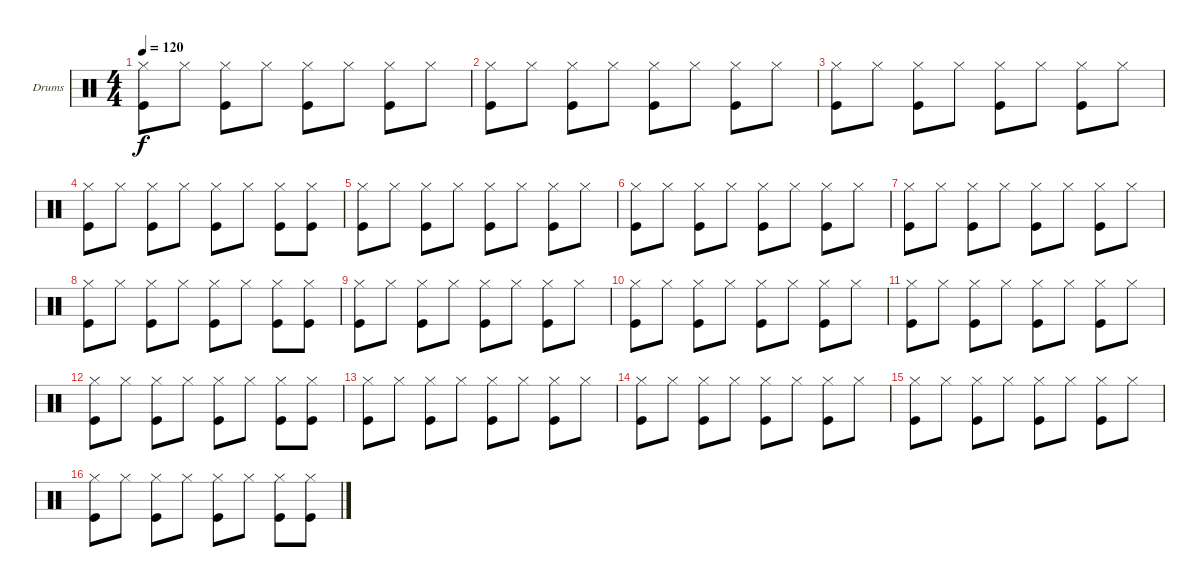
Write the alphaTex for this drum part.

\bracketExtendMode groupsimilarinstruments
\firstSystemTrackNameOrientation horizontal
\otherSystemsTrackNameOrientation horizontal
\track ("Ударные" "Drums") {instrument percussion}
\staff {score}
\articulation defaults
\ts (4 4)
\tempo 120
\clef neutral
\ks c
("Hi-Hat (closed)" "Kick (hit)").8{dy f} "Hi-Hat (closed)".8 ("Hi-Hat (closed)" "Kick (hit)").8 "Hi-Hat (closed)".8 ("Hi-Hat (closed)" "Kick (hit)").8 "Hi-Hat (closed)".8 ("Hi-Hat (closed)" "Kick (hit)").8 "Hi-Hat (closed)".8 |
("Hi-Hat (closed)" "Kick (hit)").8 "Hi-Hat (closed)".8 ("Hi-Hat (closed)" "Kick (hit)").8 "Hi-Hat (closed)".8 ("Hi-Hat (closed)" "Kick (hit)").8 "Hi-Hat (closed)".8 ("Hi-Hat (closed)" "Kick (hit)").8 "Hi-Hat (closed)".8 |
("Hi-Hat (closed)" "Kick (hit)").8 "Hi-Hat (closed)".8 ("Hi-Hat (closed)" "Kick (hit)").8 "Hi-Hat (closed)".8 ("Hi-Hat (closed)" "Kick (hit)").8 "Hi-Hat (closed)".8 ("Hi-Hat (closed)" "Kick (hit)").8 "Hi-Hat (closed)".8 |
("Hi-Hat (closed)" "Kick (hit)").8 "Hi-Hat (closed)".8 ("Hi-Hat (closed)" "Kick (hit)").8 "Hi-Hat (closed)".8 ("Hi-Hat (closed)" "Kick (hit)").8 "Hi-Hat (closed)".8 ("Hi-Hat (closed)" "Kick (hit)").8 ("Hi-Hat (closed)" "Kick (hit)").8 |
("Hi-Hat (closed)" "Kick (hit)").8 "Hi-Hat (closed)".8 ("Hi-Hat (closed)" "Kick (hit)").8 "Hi-Hat (closed)".8 ("Hi-Hat (closed)" "Kick (hit)").8 "Hi-Hat (closed)".8 ("Hi-Hat (closed)" "Kick (hit)").8 "Hi-Hat (closed)".8 |
("Hi-Hat (closed)" "Kick (hit)").8 "Hi-Hat (closed)".8 ("Hi-Hat (closed)" "Kick (hit)").8 "Hi-Hat (closed)".8 ("Hi-Hat (closed)" "Kick (hit)").8 "Hi-Hat (closed)".8 ("Hi-Hat (closed)" "Kick (hit)").8 "Hi-Hat (closed)".8 |
("Hi-Hat (closed)" "Kick (hit)").8 "Hi-Hat (closed)".8 ("Hi-Hat (closed)" "Kick (hit)").8 "Hi-Hat (closed)".8 ("Hi-Hat (closed)" "Kick (hit)").8 "Hi-Hat (closed)".8 ("Hi-Hat (closed)" "Kick (hit)").8 "Hi-Hat (closed)".8 |
("Hi-Hat (closed)" "Kick (hit)").8 "Hi-Hat (closed)".8 ("Hi-Hat (closed)" "Kick (hit)").8 "Hi-Hat (closed)".8 ("Hi-Hat (closed)" "Kick (hit)").8 "Hi-Hat (closed)".8 ("Hi-Hat (closed)" "Kick (hit)").8 ("Hi-Hat (closed)" "Kick (hit)").8 |
("Hi-Hat (closed)" "Kick (hit)").8 "Hi-Hat (closed)".8 ("Hi-Hat (closed)" "Kick (hit)").8 "Hi-Hat (closed)".8 ("Hi-Hat (closed)" "Kick (hit)").8 "Hi-Hat (closed)".8 ("Hi-Hat (closed)" "Kick (hit)").8 "Hi-Hat (closed)".8 |
("Hi-Hat (closed)" "Kick (hit)").8 "Hi-Hat (closed)".8 ("Hi-Hat (closed)" "Kick (hit)").8 "Hi-Hat (closed)".8 ("Hi-Hat (closed)" "Kick (hit)").8 "Hi-Hat (closed)".8 ("Hi-Hat (closed)" "Kick (hit)").8 "Hi-Hat (closed)".8 |
("Hi-Hat (closed)" "Kick (hit)").8 "Hi-Hat (closed)".8 ("Hi-Hat (closed)" "Kick (hit)").8 "Hi-Hat (closed)".8 ("Hi-Hat (closed)" "Kick (hit)").8 "Hi-Hat (closed)".8 ("Hi-Hat (closed)" "Kick (hit)").8 "Hi-Hat (closed)".8 |
("Hi-Hat (closed)" "Kick (hit)").8 "Hi-Hat (closed)".8 ("Hi-Hat (closed)" "Kick (hit)").8 "Hi-Hat (closed)".8 ("Hi-Hat (closed)" "Kick (hit)").8 "Hi-Hat (closed)".8 ("Hi-Hat (closed)" "Kick (hit)").8 ("Hi-Hat (closed)" "Kick (hit)").8 |
("Hi-Hat (closed)" "Kick (hit)").8 "Hi-Hat (closed)".8 ("Hi-Hat (closed)" "Kick (hit)").8 "Hi-Hat (closed)".8 ("Hi-Hat (closed)" "Kick (hit)").8 "Hi-Hat (closed)".8 ("Hi-Hat (closed)" "Kick (hit)").8 "Hi-Hat (closed)".8 |
("Hi-Hat (closed)" "Kick (hit)").8 "Hi-Hat (closed)".8 ("Hi-Hat (closed)" "Kick (hit)").8 "Hi-Hat (closed)".8 ("Hi-Hat (closed)" "Kick (hit)").8 "Hi-Hat (closed)".8 ("Hi-Hat (closed)" "Kick (hit)").8 "Hi-Hat (closed)".8 |
("Hi-Hat (closed)" "Kick (hit)").8 "Hi-Hat (closed)".8 ("Hi-Hat (closed)" "Kick (hit)").8 "Hi-Hat (closed)".8 ("Hi-Hat (closed)" "Kick (hit)").8 "Hi-Hat (closed)".8 ("Hi-Hat (closed)" "Kick (hit)").8 "Hi-Hat (closed)".8 |
("Hi-Hat (closed)" "Kick (hit)").8 "Hi-Hat (closed)".8 ("Hi-Hat (closed)" "Kick (hit)").8 "Hi-Hat (closed)".8 ("Hi-Hat (closed)" "Kick (hit)").8 "Hi-Hat (closed)".8 ("Hi-Hat (closed)" "Kick (hit)").8 ("Hi-Hat (closed)" "Kick (hit)").8
